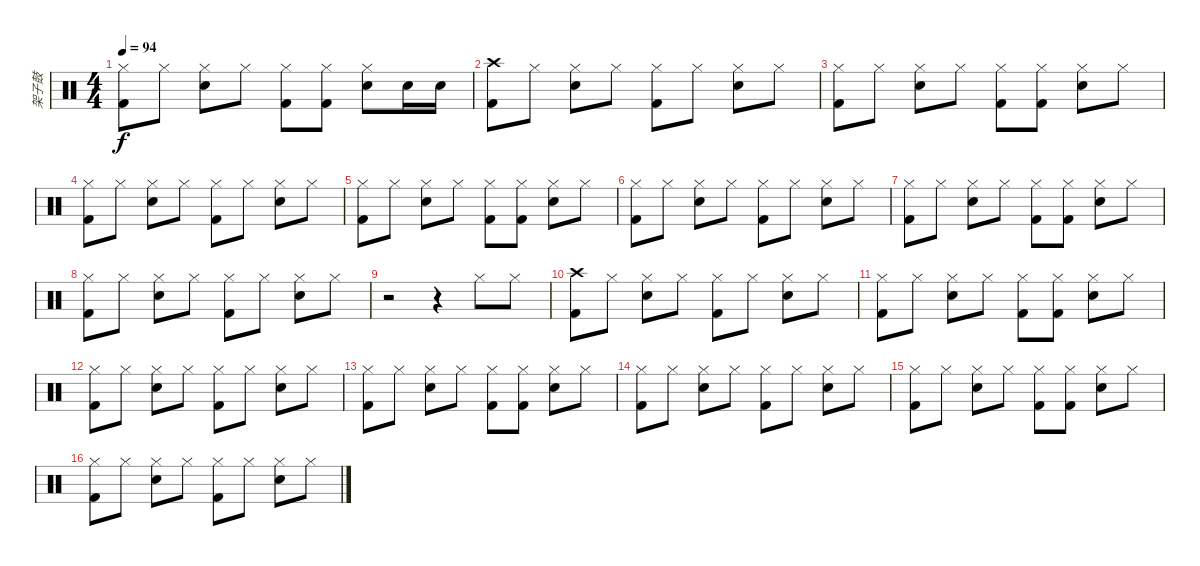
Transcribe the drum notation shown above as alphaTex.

\track ("架子鼓" "架子鼓") {instrument percussion}
\staff {score}
\articulation defaults
\ts (4 4)
\tempo 94
\clef neutral
\ks c
("Kick (hit) 2" "Hi-Hat (closed)").8{dy f} "Hi-Hat (closed)".8 ("Hi-Hat (closed)" "Electric Snare (hit)").8 "Hi-Hat (closed)".8 ("Kick (hit) 2" "Hi-Hat (closed)").8 ("Kick (hit) 2" "Hi-Hat (closed)").8 ("Hi-Hat (closed)" "Electric Snare (hit)").8 "Electric Snare (hit)".16 "Electric Snare (hit)".16 |
("Kick (hit) 2" "Crash high (hit)").8 "Hi-Hat (closed)".8 ("Hi-Hat (closed)" "Electric Snare (hit)").8 "Hi-Hat (closed)".8 ("Kick (hit) 2" "Hi-Hat (closed)").8 "Hi-Hat (closed)".8 ("Hi-Hat (closed)" "Electric Snare (hit)").8 "Hi-Hat (closed)".8 |
("Kick (hit) 2" "Hi-Hat (closed)").8 "Hi-Hat (closed)".8 ("Hi-Hat (closed)" "Electric Snare (hit)").8 "Hi-Hat (closed)".8 ("Kick (hit) 2" "Hi-Hat (closed)").8 ("Kick (hit) 2" "Hi-Hat (closed)").8 ("Hi-Hat (closed)" "Electric Snare (hit)").8 "Hi-Hat (closed)".8 |
("Kick (hit) 2" "Hi-Hat (closed)").8 "Hi-Hat (closed)".8 ("Hi-Hat (closed)" "Electric Snare (hit)").8 "Hi-Hat (closed)".8 ("Kick (hit) 2" "Hi-Hat (closed)").8 "Hi-Hat (closed)".8 ("Hi-Hat (closed)" "Electric Snare (hit)").8 "Hi-Hat (closed)".8 |
("Kick (hit) 2" "Hi-Hat (closed)").8 "Hi-Hat (closed)".8 ("Hi-Hat (closed)" "Electric Snare (hit)").8 "Hi-Hat (closed)".8 ("Kick (hit) 2" "Hi-Hat (closed)").8 ("Kick (hit) 2" "Hi-Hat (closed)").8 ("Hi-Hat (closed)" "Electric Snare (hit)").8 "Hi-Hat (closed)".8 |
("Kick (hit) 2" "Hi-Hat (closed)").8 "Hi-Hat (closed)".8 ("Hi-Hat (closed)" "Electric Snare (hit)").8 "Hi-Hat (closed)".8 ("Kick (hit) 2" "Hi-Hat (closed)").8 "Hi-Hat (closed)".8 ("Hi-Hat (closed)" "Electric Snare (hit)").8 "Hi-Hat (closed)".8 |
("Kick (hit) 2" "Hi-Hat (closed)").8 "Hi-Hat (closed)".8 ("Hi-Hat (closed)" "Electric Snare (hit)").8 "Hi-Hat (closed)".8 ("Kick (hit) 2" "Hi-Hat (closed)").8 ("Kick (hit) 2" "Hi-Hat (closed)").8 ("Hi-Hat (closed)" "Electric Snare (hit)").8 "Hi-Hat (closed)".8 |
("Kick (hit) 2" "Hi-Hat (closed)").8 "Hi-Hat (closed)".8 ("Hi-Hat (closed)" "Electric Snare (hit)").8 "Hi-Hat (closed)".8 ("Kick (hit) 2" "Hi-Hat (closed)").8 "Hi-Hat (closed)".8 ("Hi-Hat (closed)" "Electric Snare (hit)").8 "Hi-Hat (closed)".8 |
r.2 r.4 "Hi-Hat (closed)".8 "Hi-Hat (closed)".8 |
("Kick (hit) 2" "Crash high (hit)").8 "Hi-Hat (closed)".8 ("Hi-Hat (closed)" "Electric Snare (hit)").8 "Hi-Hat (closed)".8 ("Kick (hit) 2" "Hi-Hat (closed)").8 "Hi-Hat (closed)".8 ("Hi-Hat (closed)" "Electric Snare (hit)").8 "Hi-Hat (closed)".8 |
("Kick (hit) 2" "Hi-Hat (closed)").8 "Hi-Hat (closed)".8 ("Hi-Hat (closed)" "Electric Snare (hit)").8 "Hi-Hat (closed)".8 ("Kick (hit) 2" "Hi-Hat (closed)").8 ("Kick (hit) 2" "Hi-Hat (closed)").8 ("Hi-Hat (closed)" "Electric Snare (hit)").8 "Hi-Hat (closed)".8 |
("Kick (hit) 2" "Hi-Hat (closed)").8 "Hi-Hat (closed)".8 ("Hi-Hat (closed)" "Electric Snare (hit)").8 "Hi-Hat (closed)".8 ("Kick (hit) 2" "Hi-Hat (closed)").8 "Hi-Hat (closed)".8 ("Hi-Hat (closed)" "Electric Snare (hit)").8 "Hi-Hat (closed)".8 |
("Kick (hit) 2" "Hi-Hat (closed)").8 "Hi-Hat (closed)".8 ("Hi-Hat (closed)" "Electric Snare (hit)").8 "Hi-Hat (closed)".8 ("Kick (hit) 2" "Hi-Hat (closed)").8 ("Kick (hit) 2" "Hi-Hat (closed)").8 ("Hi-Hat (closed)" "Electric Snare (hit)").8 "Hi-Hat (closed)".8 |
("Kick (hit) 2" "Hi-Hat (closed)").8 "Hi-Hat (closed)".8 ("Hi-Hat (closed)" "Electric Snare (hit)").8 "Hi-Hat (closed)".8 ("Kick (hit) 2" "Hi-Hat (closed)").8 "Hi-Hat (closed)".8 ("Hi-Hat (closed)" "Electric Snare (hit)").8 "Hi-Hat (closed)".8 |
("Kick (hit) 2" "Hi-Hat (closed)").8 "Hi-Hat (closed)".8 ("Hi-Hat (closed)" "Electric Snare (hit)").8 "Hi-Hat (closed)".8 ("Kick (hit) 2" "Hi-Hat (closed)").8 ("Kick (hit) 2" "Hi-Hat (closed)").8 ("Hi-Hat (closed)" "Electric Snare (hit)").8 "Hi-Hat (closed)".8 |
("Kick (hit) 2" "Hi-Hat (closed)").8 "Hi-Hat (closed)".8 ("Hi-Hat (closed)" "Electric Snare (hit)").8 "Hi-Hat (closed)".8 ("Kick (hit) 2" "Hi-Hat (closed)").8 "Hi-Hat (closed)".8 ("Hi-Hat (closed)" "Electric Snare (hit)").8 "Hi-Hat (closed)".8
